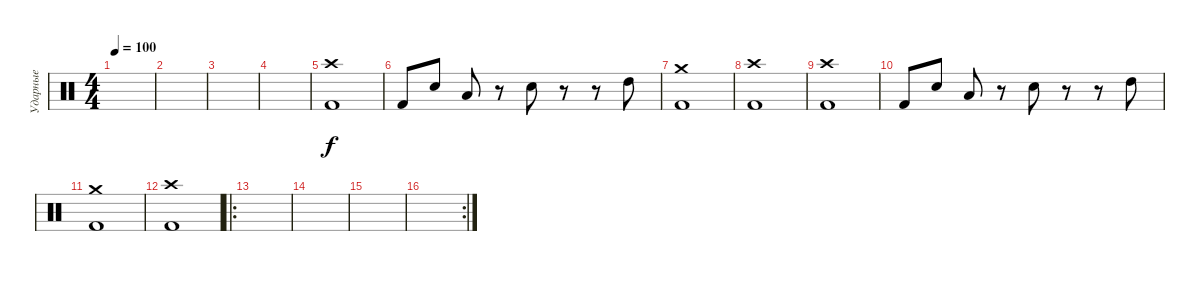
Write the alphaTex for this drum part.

\track ("Ударные" "Ударные") {instrument percussion}
\staff {score}
\articulation defaults
\ts (4 4)
\tempo 100
\clef neutral
\ks c
|
|
|
|
("Kick (hit) 2" "Crash high (hit)").1 |
"Kick (hit) 2".8 "Electric Snare (hit)".8 "Low Tom (hit)".8 r.8 "Electric Snare (hit)".8 r.8 r.8 "High Tom (hit)".8 |
("Kick (hit) 2" "Crash medium (hit)").1 |
("Kick (hit) 2" "Crash high (hit)").1 |
("Kick (hit) 2" "Crash high (hit)").1 |
"Kick (hit) 2".8 "Electric Snare (hit)".8 "Low Tom (hit)".8 r.8 "Electric Snare (hit)".8 r.8 r.8 "High Tom (hit)".8 |
("Kick (hit) 2" "Crash medium (hit)").1 |
("Kick (hit) 2" "Crash high (hit)").1 |
\ro
|
|
|
\rc 2
